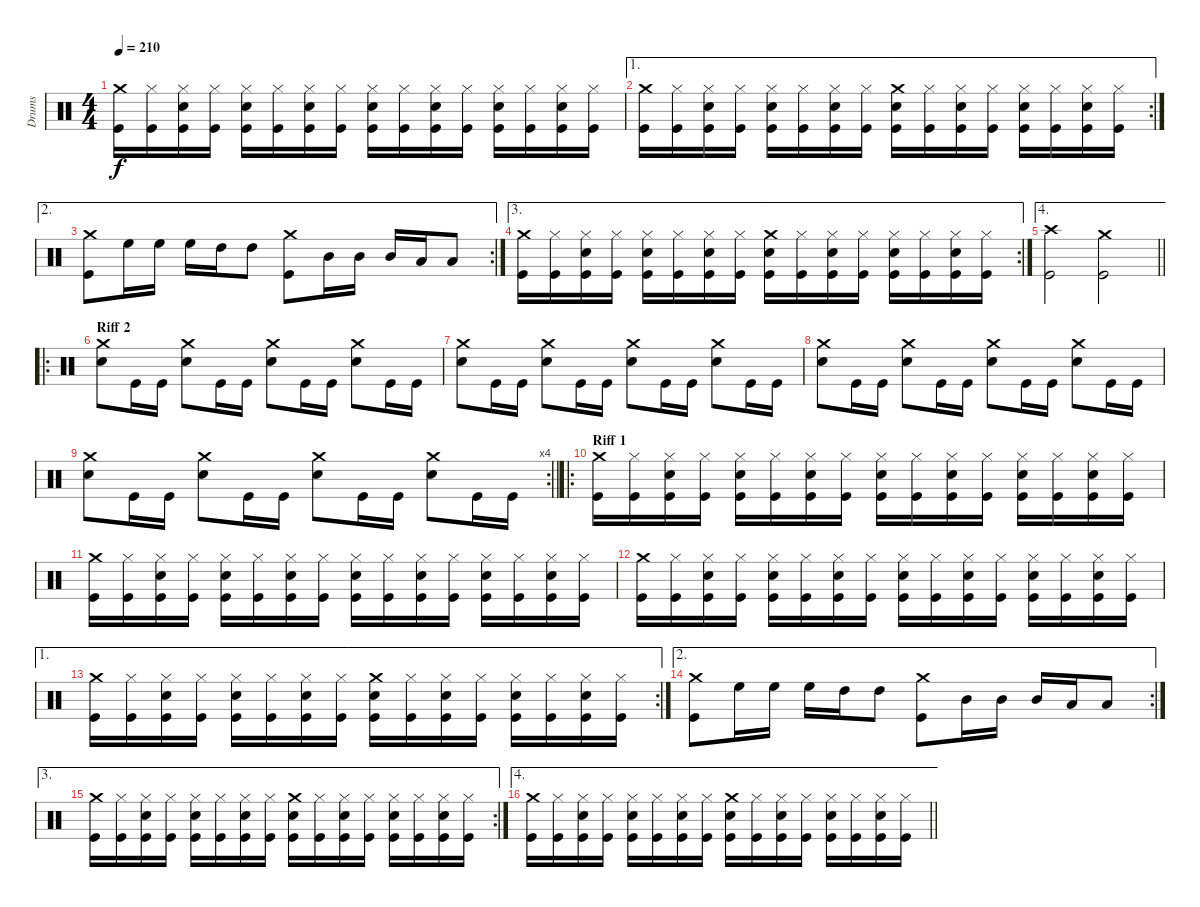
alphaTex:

\track ("Drums" "Drums") {instrument percussion}
\staff {score}
\articulation defaults
\ts (4 4)
\tempo 210
\clef neutral
\ks c
("Crash medium (hit)" "Kick (hit)").16{dy f} ("Hi-Hat (closed)" "Kick (hit)").16 ("Hi-Hat (closed)" "Snare (hit) 2" "Kick (hit)").16 ("Hi-Hat (closed)" "Kick (hit)").16 ("Hi-Hat (closed)" "Snare (hit) 2" "Kick (hit)").16 ("Hi-Hat (closed)" "Kick (hit)").16 ("Hi-Hat (closed)" "Snare (hit) 2" "Kick (hit)").16 ("Hi-Hat (closed)" "Kick (hit)").16 ("Hi-Hat (closed)" "Snare (hit) 2" "Kick (hit)").16 ("Hi-Hat (closed)" "Kick (hit)").16 ("Hi-Hat (closed)" "Snare (hit) 2" "Kick (hit)").16 ("Hi-Hat (closed)" "Kick (hit)").16 ("Hi-Hat (closed)" "Snare (hit) 2" "Kick (hit)").16 ("Hi-Hat (closed)" "Kick (hit)").16 ("Hi-Hat (closed)" "Snare (hit) 2" "Kick (hit)").16 ("Hi-Hat (closed)" "Kick (hit)").16 |
\ae 1
\rc 2
("Crash medium (hit)" "Kick (hit)").16 ("Hi-Hat (closed)" "Kick (hit)").16 ("Hi-Hat (closed)" "Snare (hit) 2" "Kick (hit)").16 ("Hi-Hat (closed)" "Kick (hit)").16 ("Hi-Hat (closed)" "Snare (hit) 2" "Kick (hit)").16 ("Hi-Hat (closed)" "Kick (hit)").16 ("Hi-Hat (closed)" "Snare (hit) 2" "Kick (hit)").16 ("Hi-Hat (closed)" "Kick (hit)").16 ("Crash medium (hit)" "Snare (hit) 2" "Kick (hit)").16 ("Hi-Hat (closed)" "Kick (hit)").16 ("Hi-Hat (closed)" "Snare (hit) 2" "Kick (hit)").16 ("Hi-Hat (closed)" "Kick (hit)").16 ("Hi-Hat (closed)" "Snare (hit) 2" "Kick (hit)").16 ("Hi-Hat (closed)" "Kick (hit)").16 ("Hi-Hat (closed)" "Snare (hit) 2" "Kick (hit)").16 ("Hi-Hat (closed)" "Kick (hit)").16 |
\ae 2
\rc 2
("Crash medium (hit)" "Kick (hit)").8 "High Floor Tom (hit)".16 "High Floor Tom (hit)".16 "High Floor Tom (hit)".16 "High Tom (hit)".16 "High Tom (hit)".8 ("Crash medium (hit)" "Kick (hit)").8 "Mid Tom (hit)".16 "Mid Tom (hit)".16 "Mid Tom (hit)".16 "Low Tom (hit)".16 "Low Tom (hit)".8 |
\ae 3
\rc 2
("Crash medium (hit)" "Kick (hit)").16 ("Hi-Hat (closed)" "Kick (hit)").16 ("Hi-Hat (closed)" "Snare (hit) 2" "Kick (hit)").16 ("Hi-Hat (closed)" "Kick (hit)").16 ("Hi-Hat (closed)" "Snare (hit) 2" "Kick (hit)").16 ("Hi-Hat (closed)" "Kick (hit)").16 ("Hi-Hat (closed)" "Snare (hit) 2" "Kick (hit)").16 ("Hi-Hat (closed)" "Kick (hit)").16 ("Crash medium (hit)" "Snare (hit) 2" "Kick (hit)").16 ("Hi-Hat (closed)" "Kick (hit)").16 ("Hi-Hat (closed)" "Snare (hit) 2" "Kick (hit)").16 ("Hi-Hat (closed)" "Kick (hit)").16 ("Hi-Hat (closed)" "Snare (hit) 2" "Kick (hit)").16 ("Hi-Hat (closed)" "Kick (hit)").16 ("Hi-Hat (closed)" "Snare (hit) 2" "Kick (hit)").16 ("Hi-Hat (closed)" "Kick (hit)").16 |
\ae 4
\barLineRight lightlight
("Crash high (hit)" "Kick (hit)").2 ("Crash medium (hit)" "Kick (hit)").2 |
\ro
\section ("" "Riff 2")
("Crash medium (hit)" "Snare (hit) 2").8 "Kick (hit)".16 "Kick (hit)".16 ("Crash medium (hit)" "Snare (hit) 2").8 "Kick (hit)".16 "Kick (hit)".16 ("Crash medium (hit)" "Snare (hit) 2").8 "Kick (hit)".16 "Kick (hit)".16 ("Crash medium (hit)" "Snare (hit) 2").8 "Kick (hit)".16 "Kick (hit)".16 |
("Crash medium (hit)" "Snare (hit) 2").8 "Kick (hit)".16 "Kick (hit)".16 ("Crash medium (hit)" "Snare (hit) 2").8 "Kick (hit)".16 "Kick (hit)".16 ("Crash medium (hit)" "Snare (hit) 2").8 "Kick (hit)".16 "Kick (hit)".16 ("Crash medium (hit)" "Snare (hit) 2").8 "Kick (hit)".16 "Kick (hit)".16 |
("Crash medium (hit)" "Snare (hit) 2").8 "Kick (hit)".16 "Kick (hit)".16 ("Crash medium (hit)" "Snare (hit) 2").8 "Kick (hit)".16 "Kick (hit)".16 ("Crash medium (hit)" "Snare (hit) 2").8 "Kick (hit)".16 "Kick (hit)".16 ("Crash medium (hit)" "Snare (hit) 2").8 "Kick (hit)".16 "Kick (hit)".16 |
\rc 4
\barLineRight lightlight
("Crash medium (hit)" "Snare (hit) 2").8 "Kick (hit)".16 "Kick (hit)".16 ("Crash medium (hit)" "Snare (hit) 2").8 "Kick (hit)".16 "Kick (hit)".16 ("Crash medium (hit)" "Snare (hit) 2").8 "Kick (hit)".16 "Kick (hit)".16 ("Crash medium (hit)" "Snare (hit) 2").8 "Kick (hit)".16 "Kick (hit)".16 |
\ro
\section ("" "Riff 1")
("Crash medium (hit)" "Kick (hit)").16 ("Hi-Hat (closed)" "Kick (hit)").16 ("Hi-Hat (closed)" "Snare (hit) 2" "Kick (hit)").16 ("Hi-Hat (closed)" "Kick (hit)").16 ("Hi-Hat (closed)" "Snare (hit) 2" "Kick (hit)").16 ("Hi-Hat (closed)" "Kick (hit)").16 ("Hi-Hat (closed)" "Snare (hit) 2" "Kick (hit)").16 ("Hi-Hat (closed)" "Kick (hit)").16 ("Hi-Hat (closed)" "Snare (hit) 2" "Kick (hit)").16 ("Hi-Hat (closed)" "Kick (hit)").16 ("Hi-Hat (closed)" "Snare (hit) 2" "Kick (hit)").16 ("Hi-Hat (closed)" "Kick (hit)").16 ("Hi-Hat (closed)" "Snare (hit) 2" "Kick (hit)").16 ("Hi-Hat (closed)" "Kick (hit)").16 ("Hi-Hat (closed)" "Snare (hit) 2" "Kick (hit)").16 ("Hi-Hat (closed)" "Kick (hit)").16 |
("Crash medium (hit)" "Kick (hit)").16 ("Hi-Hat (closed)" "Kick (hit)").16 ("Hi-Hat (closed)" "Snare (hit) 2" "Kick (hit)").16 ("Hi-Hat (closed)" "Kick (hit)").16 ("Hi-Hat (closed)" "Snare (hit) 2" "Kick (hit)").16 ("Hi-Hat (closed)" "Kick (hit)").16 ("Hi-Hat (closed)" "Snare (hit) 2" "Kick (hit)").16 ("Hi-Hat (closed)" "Kick (hit)").16 ("Hi-Hat (closed)" "Snare (hit) 2" "Kick (hit)").16 ("Hi-Hat (closed)" "Kick (hit)").16 ("Hi-Hat (closed)" "Snare (hit) 2" "Kick (hit)").16 ("Hi-Hat (closed)" "Kick (hit)").16 ("Hi-Hat (closed)" "Snare (hit) 2" "Kick (hit)").16 ("Hi-Hat (closed)" "Kick (hit)").16 ("Hi-Hat (closed)" "Snare (hit) 2" "Kick (hit)").16 ("Hi-Hat (closed)" "Kick (hit)").16 |
("Crash medium (hit)" "Kick (hit)").16 ("Hi-Hat (closed)" "Kick (hit)").16 ("Hi-Hat (closed)" "Snare (hit) 2" "Kick (hit)").16 ("Hi-Hat (closed)" "Kick (hit)").16 ("Hi-Hat (closed)" "Snare (hit) 2" "Kick (hit)").16 ("Hi-Hat (closed)" "Kick (hit)").16 ("Hi-Hat (closed)" "Snare (hit) 2" "Kick (hit)").16 ("Hi-Hat (closed)" "Kick (hit)").16 ("Hi-Hat (closed)" "Snare (hit) 2" "Kick (hit)").16 ("Hi-Hat (closed)" "Kick (hit)").16 ("Hi-Hat (closed)" "Snare (hit) 2" "Kick (hit)").16 ("Hi-Hat (closed)" "Kick (hit)").16 ("Hi-Hat (closed)" "Snare (hit) 2" "Kick (hit)").16 ("Hi-Hat (closed)" "Kick (hit)").16 ("Hi-Hat (closed)" "Snare (hit) 2" "Kick (hit)").16 ("Hi-Hat (closed)" "Kick (hit)").16 |
\ae 1
\rc 2
("Crash medium (hit)" "Kick (hit)").16 ("Hi-Hat (closed)" "Kick (hit)").16 ("Hi-Hat (closed)" "Snare (hit) 2" "Kick (hit)").16 ("Hi-Hat (closed)" "Kick (hit)").16 ("Hi-Hat (closed)" "Snare (hit) 2" "Kick (hit)").16 ("Hi-Hat (closed)" "Kick (hit)").16 ("Hi-Hat (closed)" "Snare (hit) 2" "Kick (hit)").16 ("Hi-Hat (closed)" "Kick (hit)").16 ("Crash medium (hit)" "Snare (hit) 2" "Kick (hit)").16 ("Hi-Hat (closed)" "Kick (hit)").16 ("Hi-Hat (closed)" "Snare (hit) 2" "Kick (hit)").16 ("Hi-Hat (closed)" "Kick (hit)").16 ("Hi-Hat (closed)" "Snare (hit) 2" "Kick (hit)").16 ("Hi-Hat (closed)" "Kick (hit)").16 ("Hi-Hat (closed)" "Snare (hit) 2" "Kick (hit)").16 ("Hi-Hat (closed)" "Kick (hit)").16 |
\ae 2
\rc 2
("Crash medium (hit)" "Kick (hit)").8 "High Floor Tom (hit)".16 "High Floor Tom (hit)".16 "High Floor Tom (hit)".16 "High Tom (hit)".16 "High Tom (hit)".8 ("Crash medium (hit)" "Kick (hit)").8 "Mid Tom (hit)".16 "Mid Tom (hit)".16 "Mid Tom (hit)".16 "Low Tom (hit)".16 "Low Tom (hit)".8 |
\ae 3
\rc 2
("Crash medium (hit)" "Kick (hit)").16 ("Hi-Hat (closed)" "Kick (hit)").16 ("Hi-Hat (closed)" "Snare (hit) 2" "Kick (hit)").16 ("Hi-Hat (closed)" "Kick (hit)").16 ("Hi-Hat (closed)" "Snare (hit) 2" "Kick (hit)").16 ("Hi-Hat (closed)" "Kick (hit)").16 ("Hi-Hat (closed)" "Snare (hit) 2" "Kick (hit)").16 ("Hi-Hat (closed)" "Kick (hit)").16 ("Crash medium (hit)" "Snare (hit) 2" "Kick (hit)").16 ("Hi-Hat (closed)" "Kick (hit)").16 ("Hi-Hat (closed)" "Snare (hit) 2" "Kick (hit)").16 ("Hi-Hat (closed)" "Kick (hit)").16 ("Hi-Hat (closed)" "Snare (hit) 2" "Kick (hit)").16 ("Hi-Hat (closed)" "Kick (hit)").16 ("Hi-Hat (closed)" "Snare (hit) 2" "Kick (hit)").16 ("Hi-Hat (closed)" "Kick (hit)").16 |
\ae 4
\barLineRight lightlight
("Crash medium (hit)" "Kick (hit)").16 ("Hi-Hat (closed)" "Kick (hit)").16 ("Hi-Hat (closed)" "Snare (hit) 2" "Kick (hit)").16 ("Hi-Hat (closed)" "Kick (hit)").16 ("Hi-Hat (closed)" "Snare (hit) 2" "Kick (hit)").16 ("Hi-Hat (closed)" "Kick (hit)").16 ("Hi-Hat (closed)" "Snare (hit) 2" "Kick (hit)").16 ("Hi-Hat (closed)" "Kick (hit)").16 ("Crash medium (hit)" "Snare (hit) 2" "Kick (hit)").16 ("Hi-Hat (closed)" "Kick (hit)").16 ("Hi-Hat (closed)" "Snare (hit) 2" "Kick (hit)").16 ("Hi-Hat (closed)" "Kick (hit)").16 ("Hi-Hat (closed)" "Snare (hit) 2" "Kick (hit)").16 ("Hi-Hat (closed)" "Kick (hit)").16 ("Hi-Hat (closed)" "Snare (hit) 2" "Kick (hit)").16 ("Hi-Hat (closed)" "Kick (hit)").16
